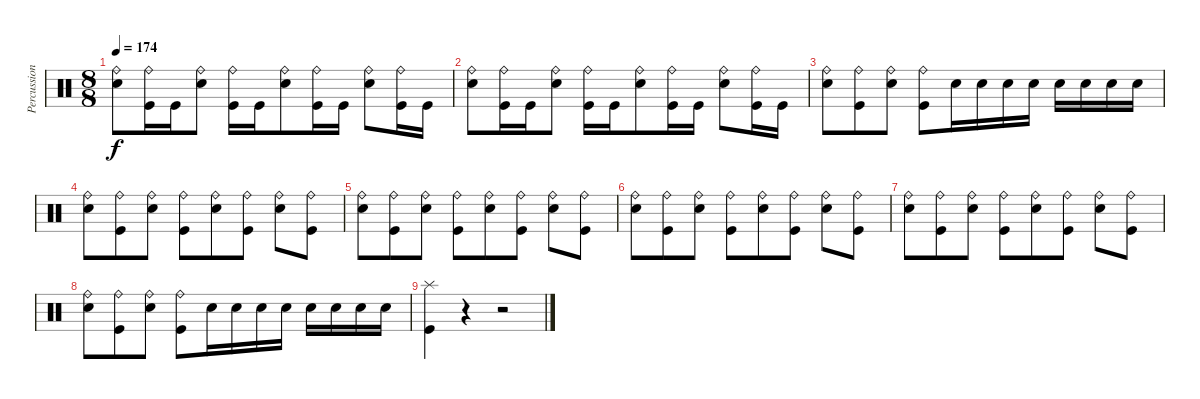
\track ("Percussions" "Percussion") {instrument percussion}
\staff {score}
\articulation defaults
\ts (8 8)
\tempo 174
\clef neutral
\ks c
("Electric Snare (hit)" "Ride (bell)").8{dy f} ("Kick (hit)" "Ride (bell)").16 "Kick (hit)".16 ("Electric Snare (hit)" "Ride (bell)").8 ("Kick (hit)" "Ride (bell)").16 "Kick (hit)".16 ("Electric Snare (hit)" "Ride (bell)").8 ("Kick (hit)" "Ride (bell)").16 "Kick (hit)".16 ("Electric Snare (hit)" "Ride (bell)").8 ("Kick (hit)" "Ride (bell)").16 "Kick (hit)".16 |
("Electric Snare (hit)" "Ride (bell)").8 ("Kick (hit)" "Ride (bell)").16 "Kick (hit)".16 ("Electric Snare (hit)" "Ride (bell)").8 ("Kick (hit)" "Ride (bell)").16 "Kick (hit)".16 ("Electric Snare (hit)" "Ride (bell)").8 ("Kick (hit)" "Ride (bell)").16 "Kick (hit)".16 ("Electric Snare (hit)" "Ride (bell)").8 ("Kick (hit)" "Ride (bell)").16 "Kick (hit)".16 |
("Electric Snare (hit)" "Ride (bell)").8 ("Kick (hit)" "Ride (bell)").8 ("Electric Snare (hit)" "Ride (bell)").8 ("Kick (hit)" "Ride (bell)").8 "Electric Snare (hit)".16 "Electric Snare (hit)".16 "Electric Snare (hit)".16 "Electric Snare (hit)".16 "Electric Snare (hit)".16 "Electric Snare (hit)".16 "Electric Snare (hit)".16 "Electric Snare (hit)".16 |
("Electric Snare (hit)" "Ride (bell)").8 ("Kick (hit)" "Ride (bell)").8 ("Electric Snare (hit)" "Ride (bell)").8 ("Kick (hit)" "Ride (bell)").8 ("Electric Snare (hit)" "Ride (bell)").8 ("Kick (hit)" "Ride (bell)").8 ("Electric Snare (hit)" "Ride (bell)").8 ("Kick (hit)" "Ride (bell)").8 |
("Electric Snare (hit)" "Ride (bell)").8 ("Kick (hit)" "Ride (bell)").8 ("Electric Snare (hit)" "Ride (bell)").8 ("Kick (hit)" "Ride (bell)").8 ("Electric Snare (hit)" "Ride (bell)").8 ("Kick (hit)" "Ride (bell)").8 ("Electric Snare (hit)" "Ride (bell)").8 ("Kick (hit)" "Ride (bell)").8 |
("Electric Snare (hit)" "Ride (bell)").8 ("Kick (hit)" "Ride (bell)").8 ("Electric Snare (hit)" "Ride (bell)").8 ("Kick (hit)" "Ride (bell)").8 ("Electric Snare (hit)" "Ride (bell)").8 ("Kick (hit)" "Ride (bell)").8 ("Electric Snare (hit)" "Ride (bell)").8 ("Kick (hit)" "Ride (bell)").8 |
("Electric Snare (hit)" "Ride (bell)").8 ("Kick (hit)" "Ride (bell)").8 ("Electric Snare (hit)" "Ride (bell)").8 ("Kick (hit)" "Ride (bell)").8 ("Electric Snare (hit)" "Ride (bell)").8 ("Kick (hit)" "Ride (bell)").8 ("Electric Snare (hit)" "Ride (bell)").8 ("Kick (hit)" "Ride (bell)").8 |
("Electric Snare (hit)" "Ride (bell)").8 ("Kick (hit)" "Ride (bell)").8 ("Electric Snare (hit)" "Ride (bell)").8 ("Kick (hit)" "Ride (bell)").8 "Electric Snare (hit)".16 "Electric Snare (hit)".16 "Electric Snare (hit)".16 "Electric Snare (hit)".16 "Electric Snare (hit)".16 "Electric Snare (hit)".16 "Electric Snare (hit)".16 "Electric Snare (hit)".16 |
("Kick (hit)" "Splash (hit)").4 r.4 r.2
